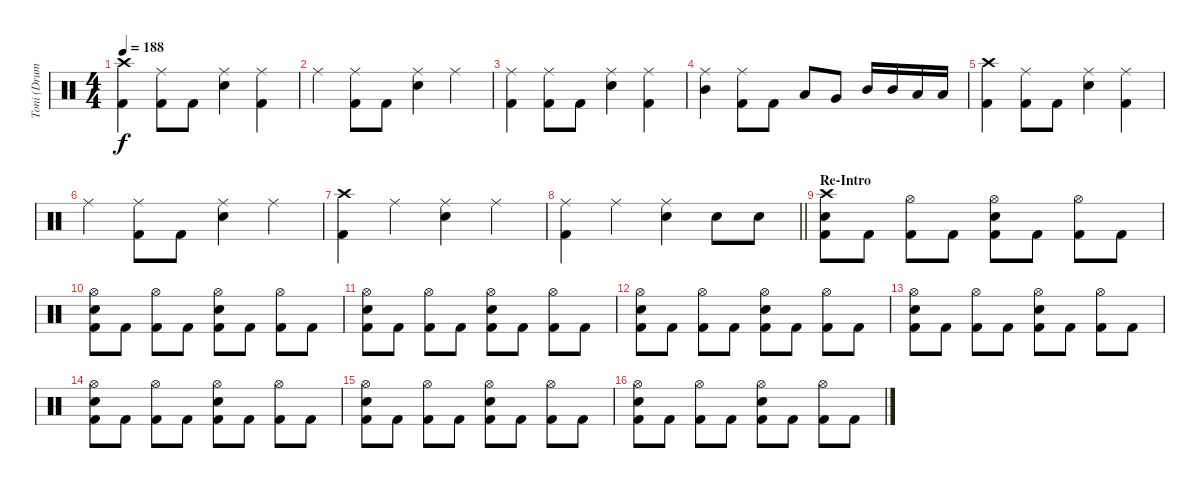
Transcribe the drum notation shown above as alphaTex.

\track ("Toni (Drums)" "Toni (Drum") {instrument percussion}
\staff {score}
\articulation defaults
\ts (4 4)
\tempo 188
\clef neutral
\ks c
("Crash high (hit)" "Kick (hit) 2").4{dy f} ("Ride (middle)" "Kick (hit) 2").8 "Kick (hit) 2".8 ("Ride (middle)" "Electric Snare (hit)").4 ("Ride (middle)" "Kick (hit) 2").4 |
"Ride (middle)".4 ("Ride (middle)" "Kick (hit) 2").8 "Kick (hit) 2".8 ("Ride (middle)" "Electric Snare (hit)").4 "Ride (middle)".4 |
("Ride (middle)" "Kick (hit) 2").4 ("Ride (middle)" "Kick (hit) 2").8 "Kick (hit) 2".8 ("Ride (middle)" "Electric Snare (hit)").4 ("Ride (middle)" "Kick (hit) 2").4 |
("Ride (middle)" "Mid Tom (hit)").4 ("Ride (middle)" "Kick (hit) 2").8 "Kick (hit) 2".8 "Low Tom (hit)".8 "Very Low Tom (hit)".8 "Mid Tom (hit)".16 "Mid Tom (hit)".16 "Low Tom (hit)".16 "Low Tom (hit)".16 |
("Crash high (hit)" "Kick (hit) 2").4 ("Ride (middle)" "Kick (hit) 2").8 "Kick (hit) 2".8 ("Ride (middle)" "Electric Snare (hit)").4 ("Ride (middle)" "Kick (hit) 2").4 |
"Ride (middle)".4 ("Ride (middle)" "Kick (hit) 2").8 "Kick (hit) 2".8 ("Ride (middle)" "Electric Snare (hit)").4 "Ride (middle)".4 |
("Crash high (hit)" "Kick (hit) 2").4 "Ride (middle)".4 ("Ride (middle)" "Electric Snare (hit)").4 "Ride (middle)".4 |
\barLineRight lightlight
("Ride (middle)" "Kick (hit) 2").4 "Ride (middle)".4 ("Ride (middle)" "Electric Snare (hit)").4 "Electric Snare (hit)".8 "Electric Snare (hit)".8 |
\section ("" "Re-Intro")
("Crash high (hit)" "Electric Snare (hit)" "Kick (hit) 2").8 "Kick (hit) 2".8 ("Hi-Hat (open)" "Kick (hit) 2").8 "Kick (hit) 2".8 ("Hi-Hat (open)" "Electric Snare (hit)" "Kick (hit) 2").8 "Kick (hit) 2".8 ("Hi-Hat (open)" "Kick (hit) 2").8 "Kick (hit) 2".8 |
("Hi-Hat (open)" "Electric Snare (hit)" "Kick (hit) 2").8 "Kick (hit) 2".8 ("Hi-Hat (open)" "Kick (hit) 2").8 "Kick (hit) 2".8 ("Hi-Hat (open)" "Electric Snare (hit)" "Kick (hit) 2").8 "Kick (hit) 2".8 ("Hi-Hat (open)" "Kick (hit) 2").8 "Kick (hit) 2".8 |
("Hi-Hat (open)" "Electric Snare (hit)" "Kick (hit) 2").8 "Kick (hit) 2".8 ("Hi-Hat (open)" "Kick (hit) 2").8 "Kick (hit) 2".8 ("Hi-Hat (open)" "Electric Snare (hit)" "Kick (hit) 2").8 "Kick (hit) 2".8 ("Hi-Hat (open)" "Kick (hit) 2").8 "Kick (hit) 2".8 |
("Hi-Hat (open)" "Electric Snare (hit)" "Kick (hit) 2").8 "Kick (hit) 2".8 ("Hi-Hat (open)" "Kick (hit) 2").8 "Kick (hit) 2".8 ("Hi-Hat (open)" "Electric Snare (hit)" "Kick (hit) 2").8 "Kick (hit) 2".8 ("Hi-Hat (open)" "Kick (hit) 2").8 "Kick (hit) 2".8 |
("Hi-Hat (open)" "Electric Snare (hit)" "Kick (hit) 2").8 "Kick (hit) 2".8 ("Hi-Hat (open)" "Kick (hit) 2").8 "Kick (hit) 2".8 ("Hi-Hat (open)" "Electric Snare (hit)" "Kick (hit) 2").8 "Kick (hit) 2".8 ("Hi-Hat (open)" "Kick (hit) 2").8 "Kick (hit) 2".8 |
("Hi-Hat (open)" "Electric Snare (hit)" "Kick (hit) 2").8 "Kick (hit) 2".8 ("Hi-Hat (open)" "Kick (hit) 2").8 "Kick (hit) 2".8 ("Hi-Hat (open)" "Electric Snare (hit)" "Kick (hit) 2").8 "Kick (hit) 2".8 ("Hi-Hat (open)" "Kick (hit) 2").8 "Kick (hit) 2".8 |
("Hi-Hat (open)" "Electric Snare (hit)" "Kick (hit) 2").8 "Kick (hit) 2".8 ("Hi-Hat (open)" "Kick (hit) 2").8 "Kick (hit) 2".8 ("Hi-Hat (open)" "Electric Snare (hit)" "Kick (hit) 2").8 "Kick (hit) 2".8 ("Hi-Hat (open)" "Kick (hit) 2").8 "Kick (hit) 2".8 |
("Hi-Hat (open)" "Electric Snare (hit)" "Kick (hit) 2").8 "Kick (hit) 2".8 ("Hi-Hat (open)" "Kick (hit) 2").8 "Kick (hit) 2".8 ("Hi-Hat (open)" "Electric Snare (hit)" "Kick (hit) 2").8 "Kick (hit) 2".8 ("Hi-Hat (open)" "Kick (hit) 2").8 "Kick (hit) 2".8
